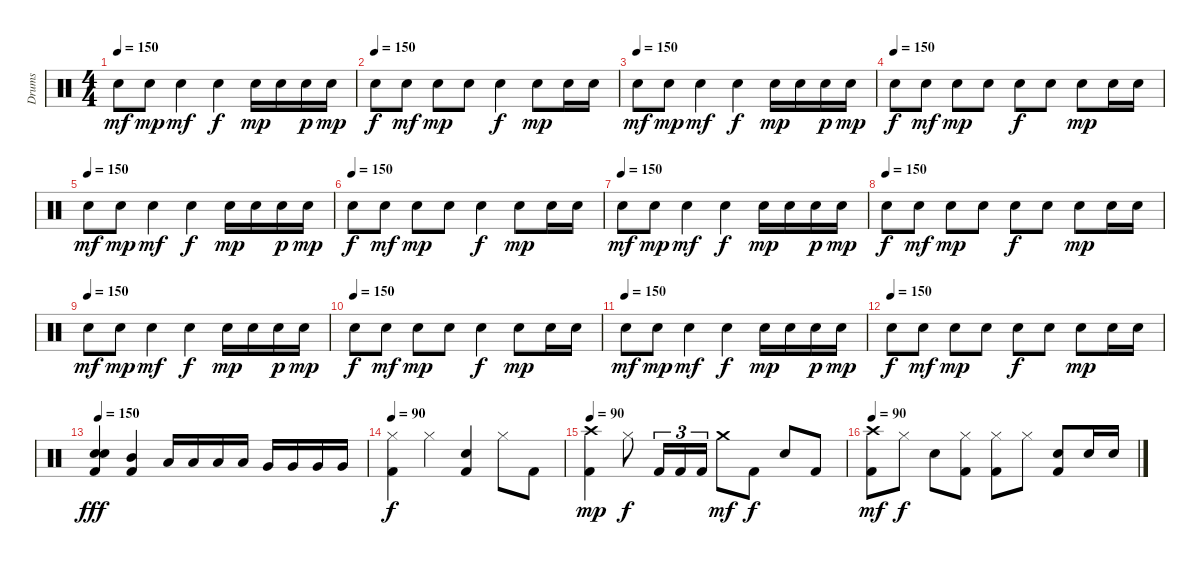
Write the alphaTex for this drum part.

\track ("Drums" "Drums") {instrument percussion}
\staff {score}
\articulation defaults
\ts (4 4)
\tempo 150
\clef neutral
\ks c "Electric Snare (hit)".8{dy mf} "Electric Snare (hit)".8{dy mp} "Electric Snare (hit)".4{dy mf} "Electric Snare (hit)".4{dy f} "Electric Snare (hit)".16{dy mp} "Electric Snare (hit)".16 "Electric Snare (hit)".16{dy p} "Electric Snare (hit)".16{dy mp}
|
\tempo (150)
"Electric Snare (hit)".8{dy f} "Electric Snare (hit)".8{dy mf} "Electric Snare (hit)".8{dy mp} "Electric Snare (hit)".8 "Electric Snare (hit)".4{dy f} "Electric Snare (hit)".8{dy mp} "Electric Snare (hit)".16 "Electric Snare (hit)".16 |
\tempo (150)
"Electric Snare (hit)".8{dy mf} "Electric Snare (hit)".8{dy mp} "Electric Snare (hit)".4{dy mf} "Electric Snare (hit)".4{dy f} "Electric Snare (hit)".16{dy mp} "Electric Snare (hit)".16 "Electric Snare (hit)".16{dy p} "Electric Snare (hit)".16{dy mp} |
\tempo (150)
"Electric Snare (hit)".8{dy f} "Electric Snare (hit)".8{dy mf} "Electric Snare (hit)".8{dy mp} "Electric Snare (hit)".8 "Electric Snare (hit)".8{dy f} "Electric Snare (hit)".8 "Electric Snare (hit)".8{dy mp} "Electric Snare (hit)".16 "Electric Snare (hit)".16 |
\tempo (150)
"Electric Snare (hit)".8{dy mf} "Electric Snare (hit)".8{dy mp} "Electric Snare (hit)".4{dy mf} "Electric Snare (hit)".4{dy f} "Electric Snare (hit)".16{dy mp} "Electric Snare (hit)".16 "Electric Snare (hit)".16{dy p} "Electric Snare (hit)".16{dy mp} |
\tempo (150)
"Electric Snare (hit)".8{dy f} "Electric Snare (hit)".8{dy mf} "Electric Snare (hit)".8{dy mp} "Electric Snare (hit)".8 "Electric Snare (hit)".4{dy f} "Electric Snare (hit)".8{dy mp} "Electric Snare (hit)".16 "Electric Snare (hit)".16 |
\tempo (150)
"Electric Snare (hit)".8{dy mf} "Electric Snare (hit)".8{dy mp} "Electric Snare (hit)".4{dy mf} "Electric Snare (hit)".4{dy f} "Electric Snare (hit)".16{dy mp} "Electric Snare (hit)".16 "Electric Snare (hit)".16{dy p} "Electric Snare (hit)".16{dy mp} |
\tempo (150)
"Electric Snare (hit)".8{dy f} "Electric Snare (hit)".8{dy mf} "Electric Snare (hit)".8{dy mp} "Electric Snare (hit)".8 "Electric Snare (hit)".8{dy f} "Electric Snare (hit)".8 "Electric Snare (hit)".8{dy mp} "Electric Snare (hit)".16 "Electric Snare (hit)".16 |
\tempo (150)
"Electric Snare (hit)".8{dy mf} "Electric Snare (hit)".8{dy mp} "Electric Snare (hit)".4{dy mf} "Electric Snare (hit)".4{dy f} "Electric Snare (hit)".16{dy mp} "Electric Snare (hit)".16 "Electric Snare (hit)".16{dy p} "Electric Snare (hit)".16{dy mp} |
\tempo (150)
"Electric Snare (hit)".8{dy f} "Electric Snare (hit)".8{dy mf} "Electric Snare (hit)".8{dy mp} "Electric Snare (hit)".8 "Electric Snare (hit)".4{dy f} "Electric Snare (hit)".8{dy mp} "Electric Snare (hit)".16 "Electric Snare (hit)".16 |
\tempo (150)
"Electric Snare (hit)".8{dy mf} "Electric Snare (hit)".8{dy mp} "Electric Snare (hit)".4{dy mf} "Electric Snare (hit)".4{dy f} "Electric Snare (hit)".16{dy mp} "Electric Snare (hit)".16 "Electric Snare (hit)".16{dy p} "Electric Snare (hit)".16{dy mp} |
\tempo (150)
"Electric Snare (hit)".8{dy f} "Electric Snare (hit)".8{dy mf} "Electric Snare (hit)".8{dy mp} "Electric Snare (hit)".8 "Electric Snare (hit)".8{dy f} "Electric Snare (hit)".8 "Electric Snare (hit)".8{dy mp} "Electric Snare (hit)".16 "Electric Snare (hit)".16 |
\tempo 150
("Electric Snare (hit)" "Electric Snare (hit)" "Kick (hit) 2").4{dy fff volume 16} ("Mid Tom (hit)" "Kick (hit) 2").4 "Low Tom (hit)".16 "Low Tom (hit)".16 "Low Tom (hit)".16 "Low Tom (hit)".16 "Very Low Tom (hit)".16 "Very Low Tom (hit)".16 "Very Low Tom (hit)".16 "Very Low Tom (hit)".16 |
\tempo 90
("Hi-Hat (closed)" "Kick (hit) 2").4{dy f volume 13} "Hi-Hat (closed)".4 ("Electric Snare (hit)" "Kick (hit) 2").4 "Hi-Hat (closed)".8 "Kick (hit) 2".8 |
\tempo 90
("Crash high (hit)" "Kick (hit) 2").4{dy mp} "Hi-Hat (closed)".8{dy f} "Kick (hit) 2".16{tu (3 2)} "Kick (hit) 2".16{tu (3 2)} "Kick (hit) 2".16{tu (3 2)} "Crash medium (hit)".8{dy mf} "Kick (hit) 2".8{dy f} "Electric Snare (hit)".8 "Kick (hit) 2".8 |
\tempo 90
("Crash high (hit)" "Kick (hit) 2").8{dy mf} "Hi-Hat (closed)".8{dy f} "Electric Snare (hit)".8 ("Hi-Hat (closed)" "Kick (hit) 2").8 ("Hi-Hat (closed)" "Kick (hit) 2").8 "Hi-Hat (closed)".8 ("Electric Snare (hit)" "Kick (hit) 2").8 "Electric Snare (hit)".16 "Electric Snare (hit)".16
